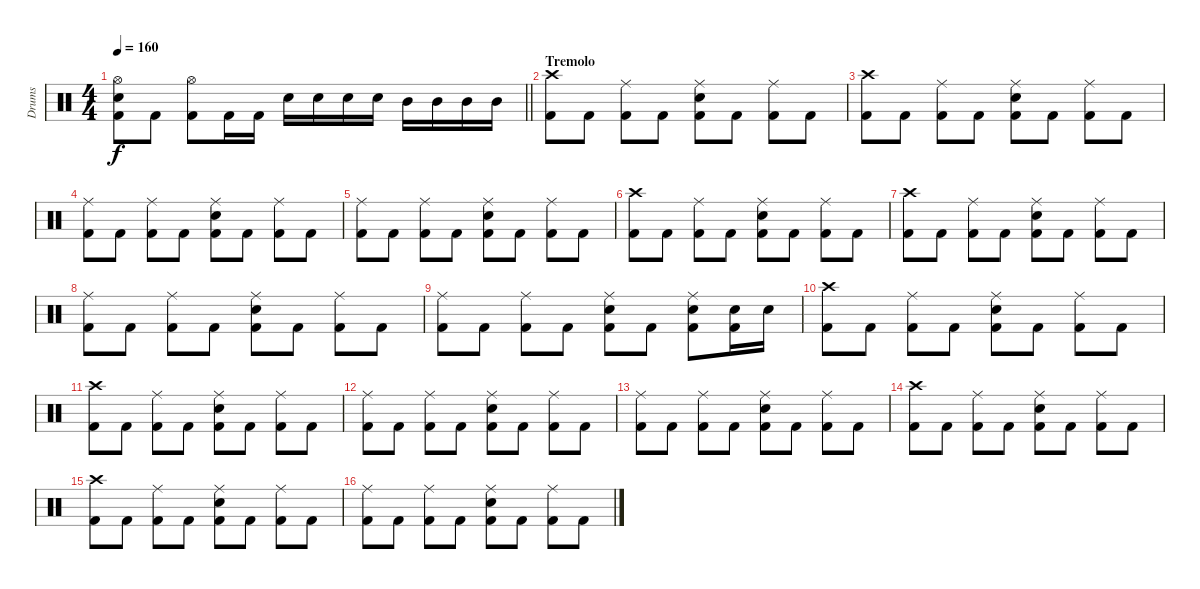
\track ("Drums" "Drums") {instrument percussion}
\staff {score}
\articulation defaults
\ts (4 4)
\tempo 160
\clef neutral
\barLineRight lightlight
\ks c
("Hi-Hat (open)" "Snare (hit) 2" "Kick (hit) 2").8{dy f} "Kick (hit) 2".8 ("Hi-Hat (open)" "Kick (hit) 2").8 "Kick (hit) 2".16 "Kick (hit) 2".16 "Snare (hit) 2".16 "Snare (hit) 2".16 "Snare (hit) 2".16 "Snare (hit) 2".16 "Mid Tom (hit)".16 "Mid Tom (hit)".16 "Mid Tom (hit)".16 "Mid Tom (hit)".16 |
\section ("" "Tremolo")
("Crash high (hit)" "Kick (hit) 2").8 "Kick (hit) 2".8 ("Ride (middle)" "Kick (hit) 2").8 "Kick (hit) 2".8 ("Ride (middle)" "Snare (hit) 2" "Kick (hit) 2").8 "Kick (hit) 2".8 ("Ride (middle)" "Kick (hit) 2").8 "Kick (hit) 2".8 |
("Crash high (hit)" "Kick (hit) 2").8 "Kick (hit) 2".8 ("Ride (middle)" "Kick (hit) 2").8 "Kick (hit) 2".8 ("Ride (middle)" "Snare (hit) 2" "Kick (hit) 2").8 "Kick (hit) 2".8 ("Ride (middle)" "Kick (hit) 2").8 "Kick (hit) 2".8 |
("Ride (middle)" "Kick (hit) 2").8 "Kick (hit) 2".8 ("Ride (middle)" "Kick (hit) 2").8 "Kick (hit) 2".8 ("Ride (middle)" "Snare (hit) 2" "Kick (hit) 2").8 "Kick (hit) 2".8 ("Ride (middle)" "Kick (hit) 2").8 "Kick (hit) 2".8 |
("Ride (middle)" "Kick (hit) 2").8 "Kick (hit) 2".8 ("Ride (middle)" "Kick (hit) 2").8 "Kick (hit) 2".8 ("Ride (middle)" "Snare (hit) 2" "Kick (hit) 2").8 "Kick (hit) 2".8 ("Ride (middle)" "Kick (hit) 2").8 "Kick (hit) 2".8 |
("Crash high (hit)" "Kick (hit) 2").8 "Kick (hit) 2".8 ("Ride (middle)" "Kick (hit) 2").8 "Kick (hit) 2".8 ("Ride (middle)" "Snare (hit) 2" "Kick (hit) 2").8 "Kick (hit) 2".8 ("Ride (middle)" "Kick (hit) 2").8 "Kick (hit) 2".8 |
("Crash high (hit)" "Kick (hit) 2").8 "Kick (hit) 2".8 ("Ride (middle)" "Kick (hit) 2").8 "Kick (hit) 2".8 ("Ride (middle)" "Snare (hit) 2" "Kick (hit) 2").8 "Kick (hit) 2".8 ("Ride (middle)" "Kick (hit) 2").8 "Kick (hit) 2".8 |
("Ride (middle)" "Kick (hit) 2").8 "Kick (hit) 2".8 ("Ride (middle)" "Kick (hit) 2").8 "Kick (hit) 2".8 ("Ride (middle)" "Snare (hit) 2" "Kick (hit) 2").8 "Kick (hit) 2".8 ("Ride (middle)" "Kick (hit) 2").8 "Kick (hit) 2".8 |
("Ride (middle)" "Kick (hit) 2").8 "Kick (hit) 2".8 ("Ride (middle)" "Kick (hit) 2").8 "Kick (hit) 2".8 ("Ride (middle)" "Snare (hit) 2" "Kick (hit) 2").8 "Kick (hit) 2".8 ("Ride (middle)" "Snare (hit) 2" "Kick (hit) 2").8 ("Snare (hit) 2" "Kick (hit) 2").16 "Snare (hit) 2".16 |
("Crash high (hit)" "Kick (hit) 2").8 "Kick (hit) 2".8 ("Ride (middle)" "Kick (hit) 2").8 "Kick (hit) 2".8 ("Ride (middle)" "Snare (hit) 2" "Kick (hit) 2").8 "Kick (hit) 2".8 ("Ride (middle)" "Kick (hit) 2").8 "Kick (hit) 2".8 |
("Crash high (hit)" "Kick (hit) 2").8 "Kick (hit) 2".8 ("Ride (middle)" "Kick (hit) 2").8 "Kick (hit) 2".8 ("Ride (middle)" "Snare (hit) 2" "Kick (hit) 2").8 "Kick (hit) 2".8 ("Ride (middle)" "Kick (hit) 2").8 "Kick (hit) 2".8 |
("Ride (middle)" "Kick (hit) 2").8 "Kick (hit) 2".8 ("Ride (middle)" "Kick (hit) 2").8 "Kick (hit) 2".8 ("Ride (middle)" "Snare (hit) 2" "Kick (hit) 2").8 "Kick (hit) 2".8 ("Ride (middle)" "Kick (hit) 2").8 "Kick (hit) 2".8 |
("Ride (middle)" "Kick (hit) 2").8 "Kick (hit) 2".8 ("Ride (middle)" "Kick (hit) 2").8 "Kick (hit) 2".8 ("Ride (middle)" "Snare (hit) 2" "Kick (hit) 2").8 "Kick (hit) 2".8 ("Ride (middle)" "Kick (hit) 2").8 "Kick (hit) 2".8 |
("Crash high (hit)" "Kick (hit) 2").8 "Kick (hit) 2".8 ("Ride (middle)" "Kick (hit) 2").8 "Kick (hit) 2".8 ("Ride (middle)" "Snare (hit) 2" "Kick (hit) 2").8 "Kick (hit) 2".8 ("Ride (middle)" "Kick (hit) 2").8 "Kick (hit) 2".8 |
("Crash high (hit)" "Kick (hit) 2").8 "Kick (hit) 2".8 ("Ride (middle)" "Kick (hit) 2").8 "Kick (hit) 2".8 ("Ride (middle)" "Snare (hit) 2" "Kick (hit) 2").8 "Kick (hit) 2".8 ("Ride (middle)" "Kick (hit) 2").8 "Kick (hit) 2".8 |
("Ride (middle)" "Kick (hit) 2").8 "Kick (hit) 2".8 ("Ride (middle)" "Kick (hit) 2").8 "Kick (hit) 2".8 ("Ride (middle)" "Snare (hit) 2" "Kick (hit) 2").8 "Kick (hit) 2".8 ("Ride (middle)" "Kick (hit) 2").8 "Kick (hit) 2".8
